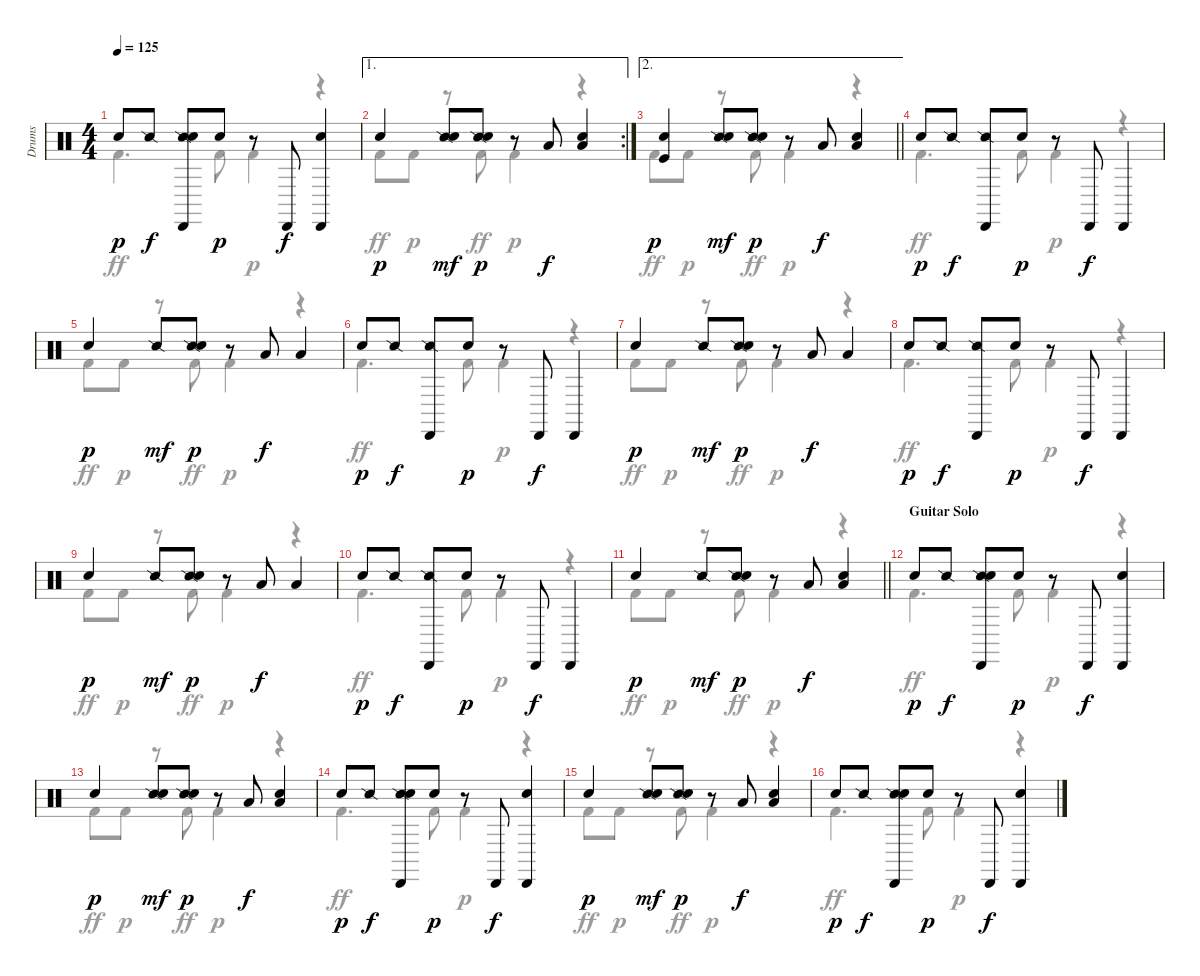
\track ("Drums" "Drums") {instrument percussion}
\staff {score}
\articulation defaults
\voice
\ts (4 4)
\tempo 125
\clef neutral
\ks c "Hand Clap (hit)".8{dy p} "Snare (side stick) 2".8{dy f}
("Snare (side stick) 2" "Cabasa (hit)" "Snare (hit) 2").8 "Hand Clap (hit)".8{dy p} r.8 "Cabasa (hit)".8{dy f} ("Cabasa (hit)" "Snare (hit) 2").4 |
\ae 1
\rc 2 "Hand Clap (hit)".4{dy p}
("Snare (side stick) 2" "Snare (hit) 2").8{dy mf} ("Snare (side stick) 2" "Hand Clap (hit)").8{dy p} r.8 "Low Tom (hit)".8{dy f} ("Low Tom (hit)" "Snare (hit) 2").4 |
\ae 2
\barLineRight lightlight
("Kick (hit)" "Hand Clap (hit)").4{dy p} ("Snare (side stick) 2" "Snare (hit) 2").8{dy mf} ("Snare (side stick) 2" "Hand Clap (hit)").8{dy p} r.8 "Low Tom (hit)".8{dy f} ("Low Tom (hit)" "Snare (hit) 2").4 |
"Hand Clap (hit)".8{dy p} "Snare (side stick) 2".8{dy f} ("Snare (side stick) 2" "Cabasa (hit)").8 "Hand Clap (hit)".8{dy p} r.8 "Cabasa (hit)".8{dy f} "Cabasa (hit)".4 |
"Hand Clap (hit)".4{dy p} "Snare (side stick) 2".8{dy mf} ("Snare (side stick) 2" "Hand Clap (hit)").8{dy p} r.8 "Low Tom (hit)".8{dy f} "Low Tom (hit)".4 |
"Hand Clap (hit)".8{dy p} "Snare (side stick) 2".8{dy f} ("Snare (side stick) 2" "Cabasa (hit)").8 "Hand Clap (hit)".8{dy p} r.8 "Cabasa (hit)".8{dy f} "Cabasa (hit)".4 |
"Hand Clap (hit)".4{dy p} "Snare (side stick) 2".8{dy mf} ("Snare (side stick) 2" "Hand Clap (hit)").8{dy p} r.8 "Low Tom (hit)".8{dy f} "Low Tom (hit)".4 |
"Hand Clap (hit)".8{dy p} "Snare (side stick) 2".8{dy f} ("Snare (side stick) 2" "Cabasa (hit)").8 "Hand Clap (hit)".8{dy p} r.8 "Cabasa (hit)".8{dy f} "Cabasa (hit)".4 |
"Hand Clap (hit)".4{dy p} "Snare (side stick) 2".8{dy mf} ("Snare (side stick) 2" "Hand Clap (hit)").8{dy p} r.8 "Low Tom (hit)".8{dy f} "Low Tom (hit)".4 |
"Hand Clap (hit)".8{dy p} "Snare (side stick) 2".8{dy f} ("Snare (side stick) 2" "Cabasa (hit)").8 "Hand Clap (hit)".8{dy p} r.8 "Cabasa (hit)".8{dy f} "Cabasa (hit)".4 |
\barLineRight lightlight "Hand Clap (hit)".4{dy p} "Snare (side stick) 2".8{dy mf}
("Snare (side stick) 2" "Hand Clap (hit)").8{dy p} r.8 "Low Tom (hit)".8{dy f} ("Low Tom (hit)" "Snare (hit) 2").4 |
\section ("" "Guitar Solo")
"Hand Clap (hit)".8{dy p} "Snare (side stick) 2".8{dy f} ("Snare (side stick) 2" "Cabasa (hit)" "Snare (hit) 2").8 "Hand Clap (hit)".8{dy p} r.8 "Cabasa (hit)".8{dy f} ("Cabasa (hit)" "Snare (hit) 2").4 |
"Hand Clap (hit)".4{dy p} ("Snare (side stick) 2" "Snare (hit) 2").8{dy mf} ("Snare (side stick) 2" "Hand Clap (hit)").8{dy p} r.8 "Low Tom (hit)".8{dy f} ("Low Tom (hit)" "Snare (hit) 2").4 |
"Hand Clap (hit)".8{dy p} "Snare (side stick) 2".8{dy f} ("Snare (side stick) 2" "Cabasa (hit)" "Snare (hit) 2").8 "Hand Clap (hit)".8{dy p} r.8 "Cabasa (hit)".8{dy f} ("Cabasa (hit)" "Snare (hit) 2").4 |
"Hand Clap (hit)".4{dy p} ("Snare (side stick) 2" "Snare (hit) 2").8{dy mf} ("Snare (side stick) 2" "Hand Clap (hit)").8{dy p} r.8 "Low Tom (hit)".8{dy f} ("Low Tom (hit)" "Snare (hit) 2").4 |
"Hand Clap (hit)".8{dy p} "Snare (side stick) 2".8{dy f} ("Snare (side stick) 2" "Cabasa (hit)" "Snare (hit) 2").8 "Hand Clap (hit)".8{dy p} r.8 "Cabasa (hit)".8{dy f} ("Cabasa (hit)" "Snare (hit) 2").4
\voice
\clef neutral
\ottava regular
\simile none
\ks c "Kick (hit) 2".4{d dy ff} "Kick (hit) 2".8 "Kick (hit) 2".4{dy p}
r.4 |
"Kick (hit) 2".8{dy ff} "Kick (hit) 2".8{dy p} r.8 "Kick (hit) 2".8{dy ff} "Kick (hit) 2".4{dy p} r.4 |
\barLineRight lightlight "Kick (hit) 2".8{dy ff} "Kick (hit) 2".8{dy p}
r.8 "Kick (hit) 2".8{dy ff} "Kick (hit) 2".4{dy p} r.4 |
"Kick (hit) 2".4{d dy ff} "Kick (hit) 2".8 "Kick (hit) 2".4{dy p} r.4 |
"Kick (hit) 2".8{dy ff} "Kick (hit) 2".8{dy p} r.8 "Kick (hit) 2".8{dy ff} "Kick (hit) 2".4{dy p} r.4 |
"Kick (hit) 2".4{d dy ff} "Kick (hit) 2".8 "Kick (hit) 2".4{dy p} r.4 |
"Kick (hit) 2".8{dy ff} "Kick (hit) 2".8{dy p} r.8 "Kick (hit) 2".8{dy ff} "Kick (hit) 2".4{dy p} r.4 |
"Kick (hit) 2".4{d dy ff} "Kick (hit) 2".8 "Kick (hit) 2".4{dy p} r.4 |
"Kick (hit) 2".8{dy ff} "Kick (hit) 2".8{dy p} r.8 "Kick (hit) 2".8{dy ff} "Kick (hit) 2".4{dy p} r.4 |
"Kick (hit) 2".4{d dy ff} "Kick (hit) 2".8 "Kick (hit) 2".4{dy p} r.4 |
\barLineRight lightlight "Kick (hit) 2".8{dy ff} "Kick (hit) 2".8{dy p}
r.8 "Kick (hit) 2".8{dy ff} "Kick (hit) 2".4{dy p} r.4 |
"Kick (hit) 2".4{d dy ff} "Kick (hit) 2".8 "Kick (hit) 2".4{dy p} r.4 |
"Kick (hit) 2".8{dy ff} "Kick (hit) 2".8{dy p} r.8 "Kick (hit) 2".8{dy ff} "Kick (hit) 2".4{dy p} r.4 |
"Kick (hit) 2".4{d dy ff} "Kick (hit) 2".8 "Kick (hit) 2".4{dy p} r.4 |
"Kick (hit) 2".8{dy ff} "Kick (hit) 2".8{dy p} r.8 "Kick (hit) 2".8{dy ff} "Kick (hit) 2".4{dy p} r.4 |
"Kick (hit) 2".4{d dy ff} "Kick (hit) 2".8 "Kick (hit) 2".4{dy p} r.4
